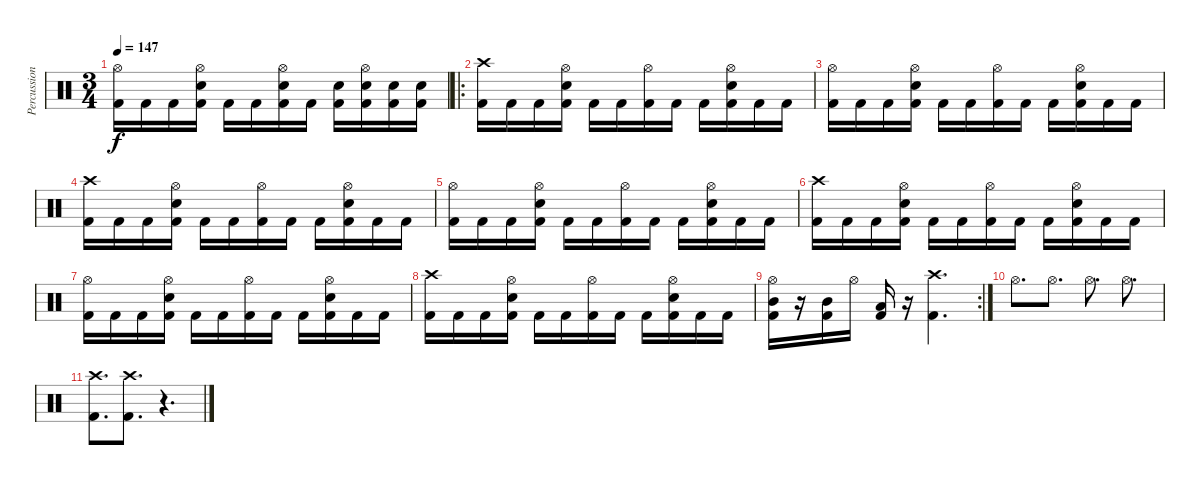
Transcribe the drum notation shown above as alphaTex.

\track ("Percussion" "Percussion") {instrument percussion}
\staff {score}
\articulation defaults
\ts (3 4)
\tempo 147
\clef neutral
\ks c
("Hi-Hat (open)" "Kick (hit) 2").16{dy f} "Kick (hit) 2".16 "Kick (hit) 2".16 ("Hi-Hat (open)" "Electric Snare (hit)" "Kick (hit) 2").16 "Kick (hit) 2".16 "Kick (hit) 2".16 ("Hi-Hat (open)" "Electric Snare (hit)" "Kick (hit) 2").16 "Kick (hit) 2".16 ("Electric Snare (hit)" "Kick (hit) 2").16 ("Hi-Hat (open)" "Electric Snare (hit)" "Kick (hit) 2").16 ("Electric Snare (hit)" "Kick (hit) 2").16 ("Electric Snare (hit)" "Kick (hit) 2").16 |
\ro
("Crash high (hit)" "Kick (hit) 2").16 "Kick (hit) 2".16 "Kick (hit) 2".16 ("Hi-Hat (open)" "Electric Snare (hit)" "Kick (hit) 2").16 "Kick (hit) 2".16 "Kick (hit) 2".16 ("Hi-Hat (open)" "Kick (hit) 2").16 "Kick (hit) 2".16 "Kick (hit) 2".16 ("Hi-Hat (open)" "Electric Snare (hit)" "Kick (hit) 2").16 "Kick (hit) 2".16 "Kick (hit) 2".16 |
("Hi-Hat (open)" "Kick (hit) 2").16 "Kick (hit) 2".16 "Kick (hit) 2".16 ("Hi-Hat (open)" "Electric Snare (hit)" "Kick (hit) 2").16 "Kick (hit) 2".16 "Kick (hit) 2".16 ("Hi-Hat (open)" "Kick (hit) 2").16 "Kick (hit) 2".16 "Kick (hit) 2".16 ("Hi-Hat (open)" "Electric Snare (hit)" "Kick (hit) 2").16 "Kick (hit) 2".16 "Kick (hit) 2".16 |
("Crash high (hit)" "Kick (hit) 2").16 "Kick (hit) 2".16 "Kick (hit) 2".16 ("Hi-Hat (open)" "Electric Snare (hit)" "Kick (hit) 2").16 "Kick (hit) 2".16 "Kick (hit) 2".16 ("Hi-Hat (open)" "Kick (hit) 2").16 "Kick (hit) 2".16 "Kick (hit) 2".16 ("Hi-Hat (open)" "Electric Snare (hit)" "Kick (hit) 2").16 "Kick (hit) 2".16 "Kick (hit) 2".16 |
("Hi-Hat (open)" "Kick (hit) 2").16 "Kick (hit) 2".16 "Kick (hit) 2".16 ("Hi-Hat (open)" "Electric Snare (hit)" "Kick (hit) 2").16 "Kick (hit) 2".16 "Kick (hit) 2".16 ("Hi-Hat (open)" "Kick (hit) 2").16 "Kick (hit) 2".16 "Kick (hit) 2".16 ("Hi-Hat (open)" "Electric Snare (hit)" "Kick (hit) 2").16 "Kick (hit) 2".16 "Kick (hit) 2".16 |
("Crash high (hit)" "Kick (hit) 2").16 "Kick (hit) 2".16 "Kick (hit) 2".16 ("Hi-Hat (open)" "Electric Snare (hit)" "Kick (hit) 2").16 "Kick (hit) 2".16 "Kick (hit) 2".16 ("Hi-Hat (open)" "Kick (hit) 2").16 "Kick (hit) 2".16 "Kick (hit) 2".16 ("Hi-Hat (open)" "Electric Snare (hit)" "Kick (hit) 2").16 "Kick (hit) 2".16 "Kick (hit) 2".16 |
("Hi-Hat (open)" "Kick (hit) 2").16 "Kick (hit) 2".16 "Kick (hit) 2".16 ("Hi-Hat (open)" "Electric Snare (hit)" "Kick (hit) 2").16 "Kick (hit) 2".16 "Kick (hit) 2".16 ("Hi-Hat (open)" "Kick (hit) 2").16 "Kick (hit) 2".16 "Kick (hit) 2".16 ("Hi-Hat (open)" "Electric Snare (hit)" "Kick (hit) 2").16 "Kick (hit) 2".16 "Kick (hit) 2".16 |
("Crash high (hit)" "Kick (hit) 2").16 "Kick (hit) 2".16 "Kick (hit) 2".16 ("Hi-Hat (open)" "Electric Snare (hit)" "Kick (hit) 2").16 "Kick (hit) 2".16 "Kick (hit) 2".16 ("Hi-Hat (open)" "Kick (hit) 2").16 "Kick (hit) 2".16 "Kick (hit) 2".16 ("Hi-Hat (open)" "Electric Snare (hit)" "Kick (hit) 2").16 "Kick (hit) 2".16 "Kick (hit) 2".16 |
\rc 2
("Hi-Hat (open)" "Mid Tom (hit)" "Kick (hit) 2").16 r.16 ("Mid Tom (hit)" "Kick (hit) 2").16 "Hi-Hat (open)".16 ("Low Tom (hit)" "Kick (hit) 2").16 r.16 ("Crash high (hit)" "Kick (hit) 2").4{d} |
"Hi-Hat (open)".8{d} "Hi-Hat (open)".8{d} "Hi-Hat (open)".8{d} "Hi-Hat (open)".8{d} |
("Crash high (hit)" "Kick (hit) 2").8{d} ("Crash high (hit)" "Kick (hit) 2").8{d} r.4{d}
